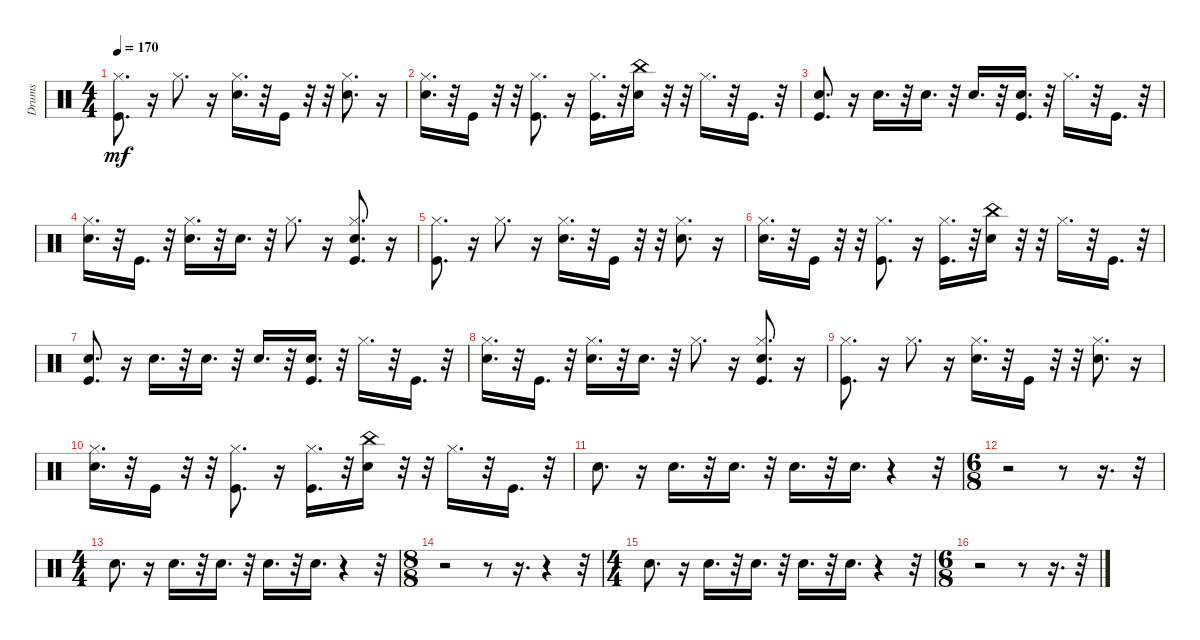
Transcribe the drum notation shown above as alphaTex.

\track ("Drums" "Drums") {instrument percussion}
\staff {score}
\articulation defaults
\ts (4 4)
\tempo 170
\clef neutral
\ks c
("Kick (hit)" "Hi-Hat (closed)").8{d dy mf} r.16 "Hi-Hat (closed)".8{d} r.16 ("Snare (hit) 2" "Hi-Hat (closed)").16{d} r.32 "Kick (hit)".16 r.32 r.32 ("Snare (hit) 2" "Hi-Hat (closed)").8{d} r.16 |
("Snare (hit) 2" "Hi-Hat (closed)").16{d} r.32 "Kick (hit)".16 r.32 r.32 ("Kick (hit)" "Hi-Hat (closed)").8{d} r.16 ("Kick (hit)" "Hi-Hat (closed)").16{d} r.32 ("Snare (hit) 2" "China (hit)").16 r.32 r.32 "Hi-Hat (closed)".16{d} r.32 "Kick (hit)".16{d} r.32 |
("Kick (hit)" "Snare (hit) 2").8{d} r.16 "Snare (hit) 2".16{d} r.32 "Snare (hit) 2".16{d} r.32 "Snare (hit) 2".16{d} r.32 ("Kick (hit)" "Snare (hit) 2").16{d} r.32 "Hi-Hat (closed)".16{d} r.32 "Kick (hit)".16{d} r.32 |
("Snare (hit) 2" "Hi-Hat (closed)").16{d} r.32 "Kick (hit)".16{d} r.32 ("Snare (hit) 2" "Hi-Hat (closed)").16{d} r.32 "Snare (hit) 2".16{d} r.32 "Hi-Hat (closed)".8{d} r.16 ("Kick (hit)" "Snare (hit) 2" "Hi-Hat (closed)").8{d} r.16 |
("Kick (hit)" "Hi-Hat (closed)").8{d} r.16 "Hi-Hat (closed)".8{d} r.16 ("Snare (hit) 2" "Hi-Hat (closed)").16{d} r.32 "Kick (hit)".16 r.32 r.32 ("Snare (hit) 2" "Hi-Hat (closed)").8{d} r.16 |
("Snare (hit) 2" "Hi-Hat (closed)").16{d} r.32 "Kick (hit)".16 r.32 r.32 ("Kick (hit)" "Hi-Hat (closed)").8{d} r.16 ("Kick (hit)" "Hi-Hat (closed)").16{d} r.32 ("Snare (hit) 2" "China (hit)").16 r.32 r.32 "Hi-Hat (closed)".16{d} r.32 "Kick (hit)".16{d} r.32 |
("Kick (hit)" "Snare (hit) 2").8{d} r.16 "Snare (hit) 2".16{d} r.32 "Snare (hit) 2".16{d} r.32 "Snare (hit) 2".16{d} r.32 ("Kick (hit)" "Snare (hit) 2").16{d} r.32 "Hi-Hat (closed)".16{d} r.32 "Kick (hit)".16{d} r.32 |
("Snare (hit) 2" "Hi-Hat (closed)").16{d} r.32 "Kick (hit)".16{d} r.32 ("Snare (hit) 2" "Hi-Hat (closed)").16{d} r.32 "Snare (hit) 2".16{d} r.32 "Hi-Hat (closed)".8{d} r.16 ("Kick (hit)" "Snare (hit) 2" "Hi-Hat (closed)").8{d} r.16 |
("Kick (hit)" "Hi-Hat (closed)").8{d} r.16 "Hi-Hat (closed)".8{d} r.16 ("Snare (hit) 2" "Hi-Hat (closed)").16{d} r.32 "Kick (hit)".16 r.32 r.32 ("Snare (hit) 2" "Hi-Hat (closed)").8{d} r.16 |
("Snare (hit) 2" "Hi-Hat (closed)").16{d} r.32 "Kick (hit)".16 r.32 r.32 ("Kick (hit)" "Hi-Hat (closed)").8{d} r.16 ("Kick (hit)" "Hi-Hat (closed)").16{d} r.32 ("Snare (hit) 2" "China (hit)").16 r.32 r.32 "Hi-Hat (closed)".16{d} r.32 "Kick (hit)".16{d} r.32 |
"Snare (hit) 2".8{d} r.16 "Snare (hit) 2".16{d} r.32 "Snare (hit) 2".16{d} r.32 "Snare (hit) 2".16{d} r.32 "Snare (hit) 2".16{d} r.4 r.32 |
\ts (6 8)
r.2 r.8 r.16{d} r.32 |
\ts (4 4)
"Snare (hit) 2".8{d} r.16 "Snare (hit) 2".16{d} r.32 "Snare (hit) 2".16{d} r.32 "Snare (hit) 2".16{d} r.32 "Snare (hit) 2".16{d} r.4 r.32 |
\ts (8 8)
r.2 r.8 r.16{d} r.4 r.32 |
\ts (4 4)
"Snare (hit) 2".8{d} r.16 "Snare (hit) 2".16{d} r.32 "Snare (hit) 2".16{d} r.32 "Snare (hit) 2".16{d} r.32 "Snare (hit) 2".16{d} r.4 r.32 |
\ts (6 8)
r.2 r.8 r.16{d} r.32
